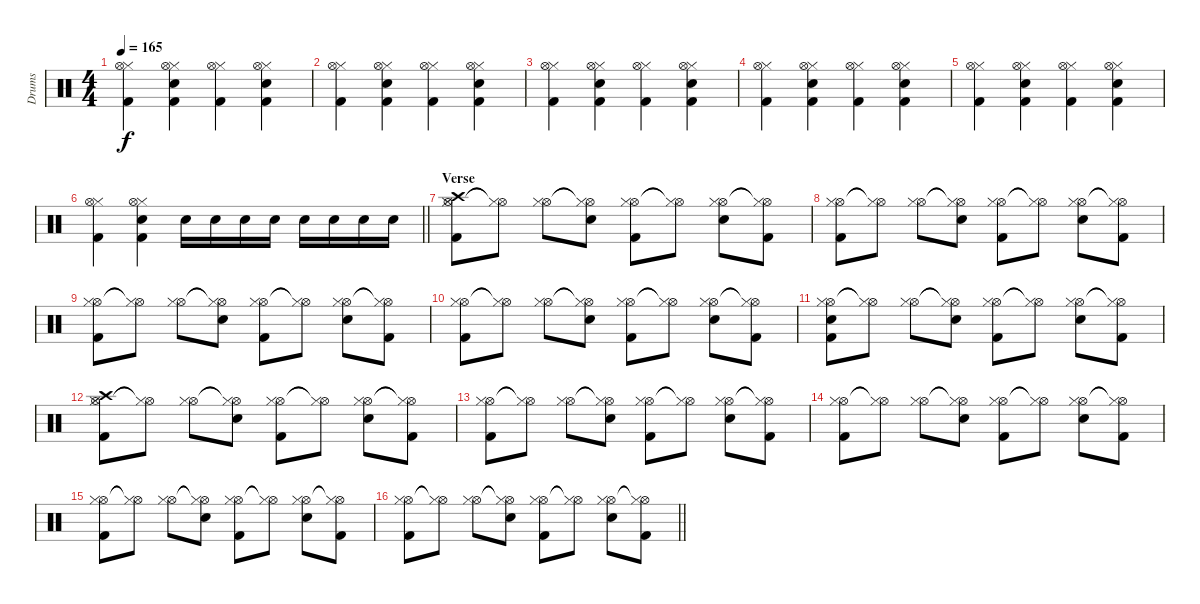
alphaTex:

\track ("Drums" "Drums") {instrument percussion}
\staff {score}
\articulation defaults
\ts (4 4)
\tempo 165
\clef neutral
\ks c
("Hi-Hat (closed)" "Hi-Hat (open)" "Kick (hit) 2").4{dy f} ("Hi-Hat (closed)" "Hi-Hat (open)" "Snare (hit) 2" "Kick (hit) 2").4 ("Hi-Hat (closed)" "Hi-Hat (open)" "Kick (hit) 2").4 ("Hi-Hat (closed)" "Hi-Hat (open)" "Snare (hit) 2" "Kick (hit) 2").4 |
("Hi-Hat (closed)" "Hi-Hat (open)" "Kick (hit) 2").4 ("Hi-Hat (closed)" "Hi-Hat (open)" "Snare (hit) 2" "Kick (hit) 2").4 ("Hi-Hat (closed)" "Hi-Hat (open)" "Kick (hit) 2").4 ("Hi-Hat (closed)" "Hi-Hat (open)" "Snare (hit) 2" "Kick (hit) 2").4 |
("Hi-Hat (closed)" "Hi-Hat (open)" "Kick (hit) 2").4 ("Hi-Hat (closed)" "Hi-Hat (open)" "Snare (hit) 2" "Kick (hit) 2").4 ("Hi-Hat (closed)" "Hi-Hat (open)" "Kick (hit) 2").4 ("Hi-Hat (closed)" "Hi-Hat (open)" "Snare (hit) 2" "Kick (hit) 2").4 |
("Hi-Hat (closed)" "Hi-Hat (open)" "Kick (hit) 2").4 ("Hi-Hat (closed)" "Hi-Hat (open)" "Snare (hit) 2" "Kick (hit) 2").4 ("Hi-Hat (closed)" "Hi-Hat (open)" "Kick (hit) 2").4 ("Hi-Hat (closed)" "Hi-Hat (open)" "Snare (hit) 2" "Kick (hit) 2").4 |
("Hi-Hat (closed)" "Hi-Hat (open)" "Kick (hit) 2").4 ("Hi-Hat (closed)" "Hi-Hat (open)" "Snare (hit) 2" "Kick (hit) 2").4 ("Hi-Hat (closed)" "Hi-Hat (open)" "Kick (hit) 2").4 ("Hi-Hat (closed)" "Hi-Hat (open)" "Snare (hit) 2" "Kick (hit) 2").4 |
\barLineRight lightlight
("Hi-Hat (closed)" "Hi-Hat (open)" "Kick (hit) 2").4 ("Hi-Hat (closed)" "Hi-Hat (open)" "Snare (hit) 2" "Kick (hit) 2").4 "Snare (hit) 2".16 "Snare (hit) 2".16 "Snare (hit) 2".16 "Snare (hit) 2".16 "Snare (hit) 2".16 "Snare (hit) 2".16 "Snare (hit) 2".16 "Snare (hit) 2".16 |
\section ("" "Verse")
("Hi-Hat (open)" "Hi-Hat (closed)" "Crash high (hit)" "Kick (hit) 2").8 ("Hi-Hat (open)"{t} "Hi-Hat (closed)"{t}).8 ("Hi-Hat (open)" "Hi-Hat (closed)").8 ("Hi-Hat (open)"{t} "Hi-Hat (closed)"{t} "Snare (hit) 2").8 ("Hi-Hat (open)" "Hi-Hat (closed)" "Kick (hit) 2").8 ("Hi-Hat (open)"{t} "Hi-Hat (closed)"{t}).8 ("Hi-Hat (open)" "Hi-Hat (closed)" "Snare (hit) 2").8 ("Hi-Hat (open)"{t} "Hi-Hat (closed)"{t} "Kick (hit) 2").8 |
("Hi-Hat (open)" "Hi-Hat (closed)" "Kick (hit) 2").8 ("Hi-Hat (open)"{t} "Hi-Hat (closed)"{t}).8 ("Hi-Hat (open)" "Hi-Hat (closed)").8 ("Hi-Hat (open)"{t} "Hi-Hat (closed)"{t} "Snare (hit) 2").8 ("Hi-Hat (open)" "Hi-Hat (closed)" "Kick (hit) 2").8 ("Hi-Hat (open)"{t} "Hi-Hat (closed)"{t}).8 ("Hi-Hat (open)" "Hi-Hat (closed)" "Snare (hit) 2").8 ("Hi-Hat (open)"{t} "Hi-Hat (closed)"{t} "Kick (hit) 2").8 |
("Hi-Hat (open)" "Hi-Hat (closed)" "Kick (hit) 2").8 ("Hi-Hat (open)"{t} "Hi-Hat (closed)"{t}).8 ("Hi-Hat (open)" "Hi-Hat (closed)").8 ("Hi-Hat (open)"{t} "Hi-Hat (closed)"{t} "Snare (hit) 2").8 ("Hi-Hat (open)" "Hi-Hat (closed)" "Kick (hit) 2").8 ("Hi-Hat (open)"{t} "Hi-Hat (closed)"{t}).8 ("Hi-Hat (open)" "Hi-Hat (closed)" "Snare (hit) 2").8 ("Hi-Hat (open)"{t} "Hi-Hat (closed)"{t} "Kick (hit) 2").8 |
("Hi-Hat (open)" "Hi-Hat (closed)" "Kick (hit) 2").8 ("Hi-Hat (open)"{t} "Hi-Hat (closed)"{t}).8 ("Hi-Hat (open)" "Hi-Hat (closed)").8 ("Hi-Hat (open)"{t} "Hi-Hat (closed)"{t} "Snare (hit) 2").8 ("Hi-Hat (open)" "Hi-Hat (closed)" "Kick (hit) 2").8 ("Hi-Hat (open)"{t} "Hi-Hat (closed)"{t}).8 ("Hi-Hat (open)" "Hi-Hat (closed)" "Snare (hit) 2").8 ("Hi-Hat (open)"{t} "Hi-Hat (closed)"{t} "Kick (hit) 2").8 |
("Hi-Hat (open)" "Hi-Hat (closed)" "Snare (hit) 2" "Kick (hit) 2").8 ("Hi-Hat (open)"{t} "Hi-Hat (closed)"{t}).8 ("Hi-Hat (open)" "Hi-Hat (closed)").8 ("Hi-Hat (open)"{t} "Hi-Hat (closed)"{t} "Snare (hit) 2").8 ("Hi-Hat (open)" "Hi-Hat (closed)" "Kick (hit) 2").8 ("Hi-Hat (open)"{t} "Hi-Hat (closed)"{t}).8 ("Hi-Hat (open)" "Hi-Hat (closed)" "Snare (hit) 2").8 ("Hi-Hat (open)"{t} "Hi-Hat (closed)"{t} "Kick (hit) 2").8 |
("Hi-Hat (open)" "Hi-Hat (closed)" "Crash high (hit)" "Kick (hit) 2").8 ("Hi-Hat (open)"{t} "Hi-Hat (closed)"{t}).8 ("Hi-Hat (open)" "Hi-Hat (closed)").8 ("Hi-Hat (open)"{t} "Hi-Hat (closed)"{t} "Snare (hit) 2").8 ("Hi-Hat (open)" "Hi-Hat (closed)" "Kick (hit) 2").8 ("Hi-Hat (open)"{t} "Hi-Hat (closed)"{t}).8 ("Hi-Hat (open)" "Hi-Hat (closed)" "Snare (hit) 2").8 ("Hi-Hat (open)"{t} "Hi-Hat (closed)"{t} "Kick (hit) 2").8 |
("Hi-Hat (open)" "Hi-Hat (closed)" "Kick (hit) 2").8 ("Hi-Hat (open)"{t} "Hi-Hat (closed)"{t}).8 ("Hi-Hat (open)" "Hi-Hat (closed)").8 ("Hi-Hat (open)"{t} "Hi-Hat (closed)"{t} "Snare (hit) 2").8 ("Hi-Hat (open)" "Hi-Hat (closed)" "Kick (hit) 2").8 ("Hi-Hat (open)"{t} "Hi-Hat (closed)"{t}).8 ("Hi-Hat (open)" "Hi-Hat (closed)" "Snare (hit) 2").8 ("Hi-Hat (open)"{t} "Hi-Hat (closed)"{t} "Kick (hit) 2").8 |
("Hi-Hat (open)" "Hi-Hat (closed)" "Kick (hit) 2").8 ("Hi-Hat (open)"{t} "Hi-Hat (closed)"{t}).8 ("Hi-Hat (open)" "Hi-Hat (closed)").8 ("Hi-Hat (open)"{t} "Hi-Hat (closed)"{t} "Snare (hit) 2").8 ("Hi-Hat (open)" "Hi-Hat (closed)" "Kick (hit) 2").8 ("Hi-Hat (open)"{t} "Hi-Hat (closed)"{t}).8 ("Hi-Hat (open)" "Hi-Hat (closed)" "Snare (hit) 2").8 ("Hi-Hat (open)"{t} "Hi-Hat (closed)"{t} "Kick (hit) 2").8 |
("Hi-Hat (open)" "Hi-Hat (closed)" "Kick (hit) 2").8 ("Hi-Hat (open)"{t} "Hi-Hat (closed)"{t}).8 ("Hi-Hat (open)" "Hi-Hat (closed)").8 ("Hi-Hat (open)"{t} "Hi-Hat (closed)"{t} "Snare (hit) 2").8 ("Hi-Hat (open)" "Hi-Hat (closed)" "Kick (hit) 2").8 ("Hi-Hat (open)"{t} "Hi-Hat (closed)"{t}).8 ("Hi-Hat (open)" "Hi-Hat (closed)" "Snare (hit) 2").8 ("Hi-Hat (open)"{t} "Hi-Hat (closed)"{t} "Kick (hit) 2").8 |
\barLineRight lightlight
("Hi-Hat (open)" "Hi-Hat (closed)" "Kick (hit) 2").8 ("Hi-Hat (open)"{t} "Hi-Hat (closed)"{t}).8 ("Hi-Hat (open)" "Hi-Hat (closed)").8 ("Hi-Hat (open)"{t} "Hi-Hat (closed)"{t} "Snare (hit) 2").8 ("Hi-Hat (open)" "Hi-Hat (closed)" "Kick (hit) 2").8 ("Hi-Hat (open)"{t} "Hi-Hat (closed)"{t}).8 ("Hi-Hat (open)" "Hi-Hat (closed)" "Snare (hit) 2").8 ("Hi-Hat (open)"{t} "Hi-Hat (closed)"{t} "Kick (hit) 2").8
